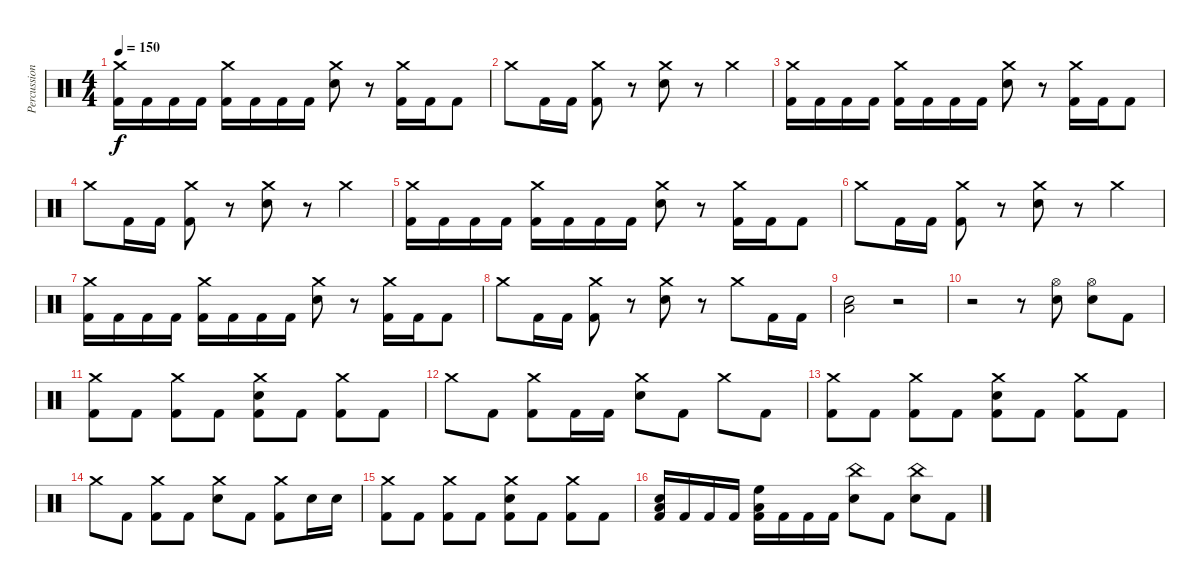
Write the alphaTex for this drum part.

\track ("Percussion" "Percussion") {instrument percussion}
\staff {score}
\articulation defaults
\ts (4 4)
\tempo 150
\clef neutral
\ks c
("Crash medium (hit)" "Kick (hit) 2").16{dy f} "Kick (hit) 2".16 "Kick (hit) 2".16 "Kick (hit) 2".16 ("Crash medium (hit)" "Kick (hit) 2").16 "Kick (hit) 2".16 "Kick (hit) 2".16 "Kick (hit) 2".16 ("Crash medium (hit)" "Snare (hit) 2").8 r.8 ("Crash medium (hit)" "Kick (hit) 2").16 "Kick (hit) 2".16 "Kick (hit) 2".8 |
"Crash medium (hit)".8 "Kick (hit) 2".16 "Kick (hit) 2".16 ("Crash medium (hit)" "Kick (hit) 2").8 r.8 ("Crash medium (hit)" "Snare (hit) 2").8 r.8 "Crash medium (hit)".4 |
("Crash medium (hit)" "Kick (hit) 2").16 "Kick (hit) 2".16 "Kick (hit) 2".16 "Kick (hit) 2".16 ("Crash medium (hit)" "Kick (hit) 2").16 "Kick (hit) 2".16 "Kick (hit) 2".16 "Kick (hit) 2".16 ("Crash medium (hit)" "Snare (hit) 2").8 r.8 ("Crash medium (hit)" "Kick (hit) 2").16 "Kick (hit) 2".16 "Kick (hit) 2".8 |
"Crash medium (hit)".8 "Kick (hit) 2".16 "Kick (hit) 2".16 ("Crash medium (hit)" "Kick (hit) 2").8 r.8 ("Crash medium (hit)" "Snare (hit) 2").8 r.8 "Crash medium (hit)".4 |
("Crash medium (hit)" "Kick (hit) 2").16 "Kick (hit) 2".16 "Kick (hit) 2".16 "Kick (hit) 2".16 ("Crash medium (hit)" "Kick (hit) 2").16 "Kick (hit) 2".16 "Kick (hit) 2".16 "Kick (hit) 2".16 ("Crash medium (hit)" "Snare (hit) 2").8 r.8 ("Crash medium (hit)" "Kick (hit) 2").16 "Kick (hit) 2".16 "Kick (hit) 2".8 |
"Crash medium (hit)".8 "Kick (hit) 2".16 "Kick (hit) 2".16 ("Crash medium (hit)" "Kick (hit) 2").8 r.8 ("Crash medium (hit)" "Snare (hit) 2").8 r.8 "Crash medium (hit)".4 |
("Crash medium (hit)" "Kick (hit) 2").16 "Kick (hit) 2".16 "Kick (hit) 2".16 "Kick (hit) 2".16 ("Crash medium (hit)" "Kick (hit) 2").16 "Kick (hit) 2".16 "Kick (hit) 2".16 "Kick (hit) 2".16 ("Crash medium (hit)" "Snare (hit) 2").8 r.8 ("Crash medium (hit)" "Kick (hit) 2").16 "Kick (hit) 2".16 "Kick (hit) 2".8 |
"Crash medium (hit)".8 "Kick (hit) 2".16 "Kick (hit) 2".16 ("Crash medium (hit)" "Kick (hit) 2").8 r.8 ("Crash medium (hit)" "Snare (hit) 2").8 r.8 "Crash medium (hit)".8 "Kick (hit) 2".16 "Kick (hit) 2".16 |
("Low Floor Tom (hit)" "Snare (hit) 2").2 r.2 |
r.2 r.8 ("Hi-Hat (open)" "Snare (hit) 2").8 ("Hi-Hat (open)" "Snare (hit) 2").8 "Kick (hit) 2".8 |
("Crash medium (hit)" "Kick (hit) 2").8 "Kick (hit) 2".8 ("Crash medium (hit)" "Kick (hit) 2").8 "Kick (hit) 2".8 ("Crash medium (hit)" "Snare (hit) 2" "Kick (hit) 2").8 "Kick (hit) 2".8 ("Crash medium (hit)" "Kick (hit) 2").8 "Kick (hit) 2".8 |
"Crash medium (hit)".8 "Kick (hit) 2".8 ("Crash medium (hit)" "Kick (hit) 2").8 "Kick (hit) 2".16 "Kick (hit) 2".16 ("Crash medium (hit)" "Snare (hit) 2").8 "Kick (hit) 2".8 "Crash medium (hit)".8 "Kick (hit) 2".8 |
("Crash medium (hit)" "Kick (hit) 2").8 "Kick (hit) 2".8 ("Crash medium (hit)" "Kick (hit) 2").8 "Kick (hit) 2".8 ("Crash medium (hit)" "Snare (hit) 2" "Kick (hit) 2").8 "Kick (hit) 2".8 ("Crash medium (hit)" "Kick (hit) 2").8 "Kick (hit) 2".8 |
"Crash medium (hit)".8 "Kick (hit) 2".8 ("Crash medium (hit)" "Kick (hit) 2").8 "Kick (hit) 2".8 ("Crash medium (hit)" "Snare (hit) 2").8 "Kick (hit) 2".8 ("Crash medium (hit)" "Kick (hit) 2").8 "Snare (hit) 2".16 "Snare (hit) 2".16 |
("Crash medium (hit)" "Kick (hit) 2").8 "Kick (hit) 2".8 ("Crash medium (hit)" "Kick (hit) 2").8 "Kick (hit) 2".8 ("Crash medium (hit)" "Snare (hit) 2" "Kick (hit) 2").8 "Kick (hit) 2".8 ("Crash medium (hit)" "Kick (hit) 2").8 "Kick (hit) 2".8 |
("Low Floor Tom (hit)" "Snare (hit) 2" "Kick (hit) 2").16 "Kick (hit) 2".16 "Kick (hit) 2".16 "Kick (hit) 2".16 ("Low Floor Tom (hit)" "High Floor Tom (hit)" "Kick (hit) 2").16 "Kick (hit) 2".16 "Kick (hit) 2".16 "Kick (hit) 2".16 ("China (hit)" "Snare (hit) 2").8 "Kick (hit) 2".8 ("China (hit)" "Snare (hit) 2").8 "Kick (hit) 2".8
